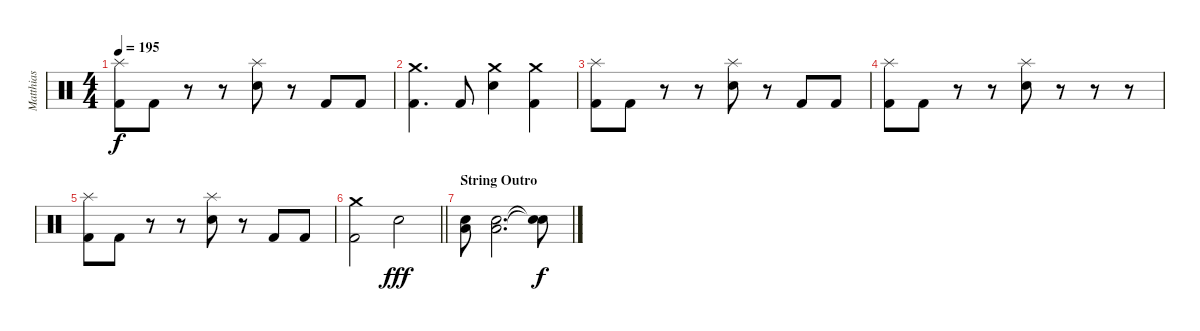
\track ("Matthias" "Matthias") {instrument percussion}
\staff {score}
\articulation defaults
\ts (4 4)
\tempo 195
\clef neutral
\ks c
("Splash (hit)" "Kick (hit) 2").8{dy f} "Kick (hit) 2".8 r.8 r.8 ("Splash (hit)" "Electric Snare (hit)").8 r.8 "Kick (hit) 2".8 "Kick (hit) 2".8 |
("Crash medium (hit)" "Kick (hit) 2").4{d} "Kick (hit) 2".8 ("Crash medium (hit)" "Electric Snare (hit)").4 ("Crash medium (hit)" "Kick (hit) 2").4 |
("Splash (hit)" "Kick (hit) 2").8 "Kick (hit) 2".8 r.8 r.8 ("Splash (hit)" "Electric Snare (hit)").8 r.8 "Kick (hit) 2".8 "Kick (hit) 2".8 |
("Splash (hit)" "Kick (hit) 2").8 "Kick (hit) 2".8 r.8 r.8 ("Splash (hit)" "Electric Snare (hit)").8 r.8 r.8 r.8 |
("Splash (hit)" "Kick (hit) 2").8 "Kick (hit) 2".8 r.8 r.8 ("Splash (hit)" "Electric Snare (hit)").8 r.8 "Kick (hit) 2".8 "Kick (hit) 2".8 |
\barLineRight lightlight
("Crash medium (hit)" "Kick (hit) 2").2 "Electric Snare (hit)".2{dy fff} |
\section ("" "String Outro")
("Low Tom (hit)" "Electric Snare (hit)").8 ("Low Tom (hit)" "Electric Snare (hit)").2{d} ("Snare (hit)"{t} "Snare (hit)"{t}).8{dy f}
